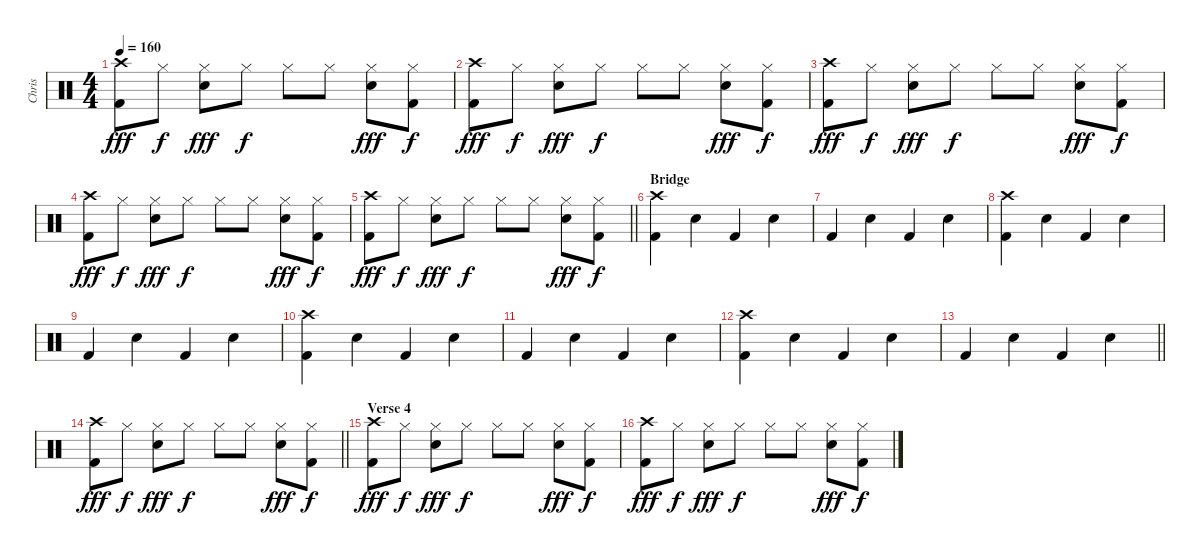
\track ("Chris" "Chris") {instrument percussion}
\staff {score}
\articulation defaults
\ts (4 4)
\tempo 160
\clef neutral
\ks c
("Crash high (hit)" "Kick (hit) 2").8{dy fff} "Hi-Hat (closed)".8{dy f} ("Hi-Hat (closed)" "Snare (hit) 2").8{dy fff} "Hi-Hat (closed)".8{dy f} "Hi-Hat (closed)".8 "Hi-Hat (closed)".8 ("Hi-Hat (closed)" "Snare (hit) 2").8{dy fff} ("Hi-Hat (closed)" "Kick (hit) 2").8{dy f} |
("Crash high (hit)" "Kick (hit) 2").8{dy fff} "Hi-Hat (closed)".8{dy f} ("Hi-Hat (closed)" "Snare (hit) 2").8{dy fff} "Hi-Hat (closed)".8{dy f} "Hi-Hat (closed)".8 "Hi-Hat (closed)".8 ("Hi-Hat (closed)" "Snare (hit) 2").8{dy fff} ("Hi-Hat (closed)" "Kick (hit) 2").8{dy f} |
("Crash high (hit)" "Kick (hit) 2").8{dy fff} "Hi-Hat (closed)".8{dy f} ("Hi-Hat (closed)" "Snare (hit) 2").8{dy fff} "Hi-Hat (closed)".8{dy f} "Hi-Hat (closed)".8 "Hi-Hat (closed)".8 ("Hi-Hat (closed)" "Snare (hit) 2").8{dy fff} ("Hi-Hat (closed)" "Kick (hit) 2").8{dy f} |
("Crash high (hit)" "Kick (hit) 2").8{dy fff} "Hi-Hat (closed)".8{dy f} ("Hi-Hat (closed)" "Snare (hit) 2").8{dy fff} "Hi-Hat (closed)".8{dy f} "Hi-Hat (closed)".8 "Hi-Hat (closed)".8 ("Hi-Hat (closed)" "Snare (hit) 2").8{dy fff} ("Hi-Hat (closed)" "Kick (hit) 2").8{dy f} |
\barLineRight lightlight
("Crash high (hit)" "Kick (hit) 2").8{dy fff} "Hi-Hat (closed)".8{dy f} ("Hi-Hat (closed)" "Snare (hit) 2").8{dy fff} "Hi-Hat (closed)".8{dy f} "Hi-Hat (closed)".8 "Hi-Hat (closed)".8 ("Hi-Hat (closed)" "Snare (hit) 2").8{dy fff} ("Hi-Hat (closed)" "Kick (hit) 2").8{dy f} |
\section ("" "Bridge")
("Crash high (hit)" "Kick (hit) 2").4 "Electric Snare (hit)".4 "Kick (hit) 2".4 "Electric Snare (hit)".4 |
"Kick (hit) 2".4 "Electric Snare (hit)".4 "Kick (hit) 2".4 "Electric Snare (hit)".4 |
("Crash high (hit)" "Kick (hit) 2").4 "Electric Snare (hit)".4 "Kick (hit) 2".4 "Electric Snare (hit)".4 |
"Kick (hit) 2".4 "Electric Snare (hit)".4 "Kick (hit) 2".4 "Electric Snare (hit)".4 |
("Crash high (hit)" "Kick (hit) 2").4 "Electric Snare (hit)".4 "Kick (hit) 2".4 "Electric Snare (hit)".4 |
"Kick (hit) 2".4 "Electric Snare (hit)".4 "Kick (hit) 2".4 "Electric Snare (hit)".4 |
("Crash high (hit)" "Kick (hit) 2").4 "Electric Snare (hit)".4 "Kick (hit) 2".4 "Electric Snare (hit)".4 |
\barLineRight lightlight "Kick (hit) 2".4 "Electric Snare (hit)".4 "Kick (hit) 2".4 "Electric Snare (hit)".4
|
\barLineRight lightlight
("Crash high (hit)" "Kick (hit) 2").8{dy fff} "Hi-Hat (closed)".8{dy f} ("Hi-Hat (closed)" "Snare (hit) 2").8{dy fff} "Hi-Hat (closed)".8{dy f} "Hi-Hat (closed)".8 "Hi-Hat (closed)".8 ("Hi-Hat (closed)" "Snare (hit) 2").8{dy fff} ("Hi-Hat (closed)" "Kick (hit) 2").8{dy f} |
\section ("" "Verse 4")
("Crash high (hit)" "Kick (hit) 2").8{dy fff} "Hi-Hat (closed)".8{dy f} ("Hi-Hat (closed)" "Snare (hit) 2").8{dy fff} "Hi-Hat (closed)".8{dy f} "Hi-Hat (closed)".8 "Hi-Hat (closed)".8 ("Hi-Hat (closed)" "Snare (hit) 2").8{dy fff} ("Hi-Hat (closed)" "Kick (hit) 2").8{dy f} |
("Crash high (hit)" "Kick (hit) 2").8{dy fff} "Hi-Hat (closed)".8{dy f} ("Hi-Hat (closed)" "Snare (hit) 2").8{dy fff} "Hi-Hat (closed)".8{dy f} "Hi-Hat (closed)".8 "Hi-Hat (closed)".8 ("Hi-Hat (closed)" "Snare (hit) 2").8{dy fff} ("Hi-Hat (closed)" "Kick (hit) 2").8{dy f}
